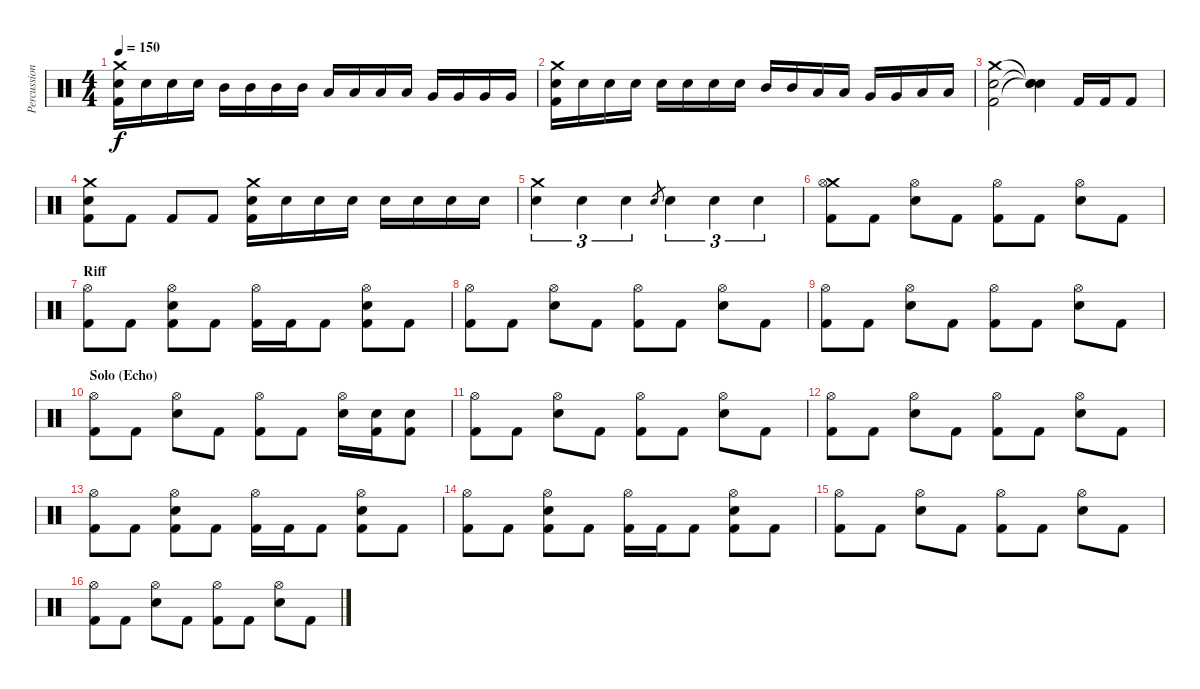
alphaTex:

\track ("Percussion" "Percussion") {instrument percussion}
\staff {score}
\articulation defaults
\ts (4 4)
\tempo 150
\clef neutral
\ks c
("Crash medium (hit)" "Electric Snare (hit)" "Kick (hit) 2").16{dy f} "Electric Snare (hit)".16 "Electric Snare (hit)".16 "Electric Snare (hit)".16 "Mid Tom (hit)".16 "Mid Tom (hit)".16 "Mid Tom (hit)".16 "Mid Tom (hit)".16 "Low Tom (hit)".16 "Low Tom (hit)".16 "Low Tom (hit)".16 "Low Tom (hit)".16 "Very Low Tom (hit)".16 "Very Low Tom (hit)".16 "Very Low Tom (hit)".16 "Very Low Tom (hit)".16 |
("Crash medium (hit)" "Snare (hit) 2" "Kick (hit) 2").16 "Snare (hit) 2".16 "Snare (hit) 2".16 "Snare (hit) 2".16 "Electric Snare (hit)".16 "Electric Snare (hit)".16 "Electric Snare (hit)".16 "Electric Snare (hit)".16 "Mid Tom (hit)".16 "Mid Tom (hit)".16 "Low Tom (hit)".16 "Low Tom (hit)".16 "Very Low Tom (hit)".16 "Very Low Tom (hit)".16 "Low Floor Tom (hit)".16 "Low Floor Tom (hit)".16 |
("Crash medium (hit)" "Electric Snare (hit)" "Kick (hit) 2").2 ("Snare (hit)"{t} "Snare (hit)"{t} "Snare (hit)"{t}).4 "Kick (hit) 2".16 "Kick (hit) 2".16 "Kick (hit) 2".8 |
("Kick (hit) 2" "Crash medium (hit)" "Electric Snare (hit)").8 "Kick (hit) 2".8 "Kick (hit) 2".8 "Kick (hit) 2".8 ("Kick (hit) 2" "Electric Snare (hit)" "Crash medium (hit)").16 "Electric Snare (hit)".16 "Electric Snare (hit)".16 "Electric Snare (hit)".16 "Electric Snare (hit)".16 "Electric Snare (hit)".16 "Electric Snare (hit)".16 "Electric Snare (hit)".16 |
("Crash medium (hit)" "Electric Snare (hit)").4{tu (3 2)} "Electric Snare (hit)".4{tu (3 2)} "Electric Snare (hit)".4{tu (3 2)} "Electric Snare (hit)".8{gr} "Electric Snare (hit)".4{tu (3 2)} "Electric Snare (hit)".4{tu (3 2)} "Electric Snare (hit)".4{tu (3 2)} |
("Kick (hit) 2" "Crash medium (hit)" "Hi-Hat (open)").8 "Kick (hit) 2".8 ("Electric Snare (hit)" "Hi-Hat (open)").8 "Kick (hit) 2".8 ("Kick (hit) 2" "Hi-Hat (open)").8 "Kick (hit) 2".8 ("Electric Snare (hit)" "Hi-Hat (open)").8 "Kick (hit) 2".8 |
\section ("" "Riff")
("Kick (hit) 2" "Hi-Hat (open)").8 "Kick (hit) 2".8 ("Electric Snare (hit)" "Kick (hit) 2" "Hi-Hat (open)").8 "Kick (hit) 2".8 ("Kick (hit) 2" "Hi-Hat (open)").16 "Kick (hit) 2".16 "Kick (hit) 2".8 ("Electric Snare (hit)" "Kick (hit) 2" "Hi-Hat (open)").8 "Kick (hit) 2".8 |
("Kick (hit) 2" "Hi-Hat (open)").8 "Kick (hit) 2".8 ("Electric Snare (hit)" "Hi-Hat (open)").8 "Kick (hit) 2".8 ("Kick (hit) 2" "Hi-Hat (open)").8 "Kick (hit) 2".8 ("Electric Snare (hit)" "Hi-Hat (open)").8 "Kick (hit) 2".8 |
("Kick (hit) 2" "Hi-Hat (open)").8 "Kick (hit) 2".8 ("Electric Snare (hit)" "Hi-Hat (open)").8 "Kick (hit) 2".8 ("Kick (hit) 2" "Hi-Hat (open)").8 "Kick (hit) 2".8 ("Electric Snare (hit)" "Hi-Hat (open)").8 "Kick (hit) 2".8 |
\section ("" "Solo (Echo)")
("Kick (hit) 2" "Hi-Hat (open)").8 "Kick (hit) 2".8 ("Electric Snare (hit)" "Hi-Hat (open)").8 "Kick (hit) 2".8 ("Kick (hit) 2" "Hi-Hat (open)").8 "Kick (hit) 2".8 ("Electric Snare (hit)" "Hi-Hat (open)").16 ("Kick (hit) 2" "Electric Snare (hit)").16 ("Kick (hit) 2" "Electric Snare (hit)").8 |
("Kick (hit) 2" "Hi-Hat (open)").8 "Kick (hit) 2".8 ("Electric Snare (hit)" "Hi-Hat (open)").8 "Kick (hit) 2".8 ("Kick (hit) 2" "Hi-Hat (open)").8 "Kick (hit) 2".8 ("Electric Snare (hit)" "Hi-Hat (open)").8 "Kick (hit) 2".8 |
("Kick (hit) 2" "Hi-Hat (open)").8 "Kick (hit) 2".8 ("Electric Snare (hit)" "Hi-Hat (open)").8 "Kick (hit) 2".8 ("Kick (hit) 2" "Hi-Hat (open)").8 "Kick (hit) 2".8 ("Electric Snare (hit)" "Hi-Hat (open)").8 "Kick (hit) 2".8 |
("Kick (hit) 2" "Hi-Hat (open)").8 "Kick (hit) 2".8 ("Electric Snare (hit)" "Kick (hit) 2" "Hi-Hat (open)").8 "Kick (hit) 2".8 ("Kick (hit) 2" "Hi-Hat (open)").16 "Kick (hit) 2".16 "Kick (hit) 2".8 ("Electric Snare (hit)" "Kick (hit) 2" "Hi-Hat (open)").8 "Kick (hit) 2".8 |
("Kick (hit) 2" "Hi-Hat (open)").8 "Kick (hit) 2".8 ("Electric Snare (hit)" "Kick (hit) 2" "Hi-Hat (open)").8 "Kick (hit) 2".8 ("Kick (hit) 2" "Hi-Hat (open)").16 "Kick (hit) 2".16 "Kick (hit) 2".8 ("Electric Snare (hit)" "Kick (hit) 2" "Hi-Hat (open)").8 "Kick (hit) 2".8 |
("Kick (hit) 2" "Hi-Hat (open)").8 "Kick (hit) 2".8 ("Electric Snare (hit)" "Hi-Hat (open)").8 "Kick (hit) 2".8 ("Kick (hit) 2" "Hi-Hat (open)").8 "Kick (hit) 2".8 ("Electric Snare (hit)" "Hi-Hat (open)").8 "Kick (hit) 2".8 |
("Kick (hit) 2" "Hi-Hat (open)").8 "Kick (hit) 2".8 ("Electric Snare (hit)" "Hi-Hat (open)").8 "Kick (hit) 2".8 ("Kick (hit) 2" "Hi-Hat (open)").8 "Kick (hit) 2".8 ("Electric Snare (hit)" "Hi-Hat (open)").8 "Kick (hit) 2".8
